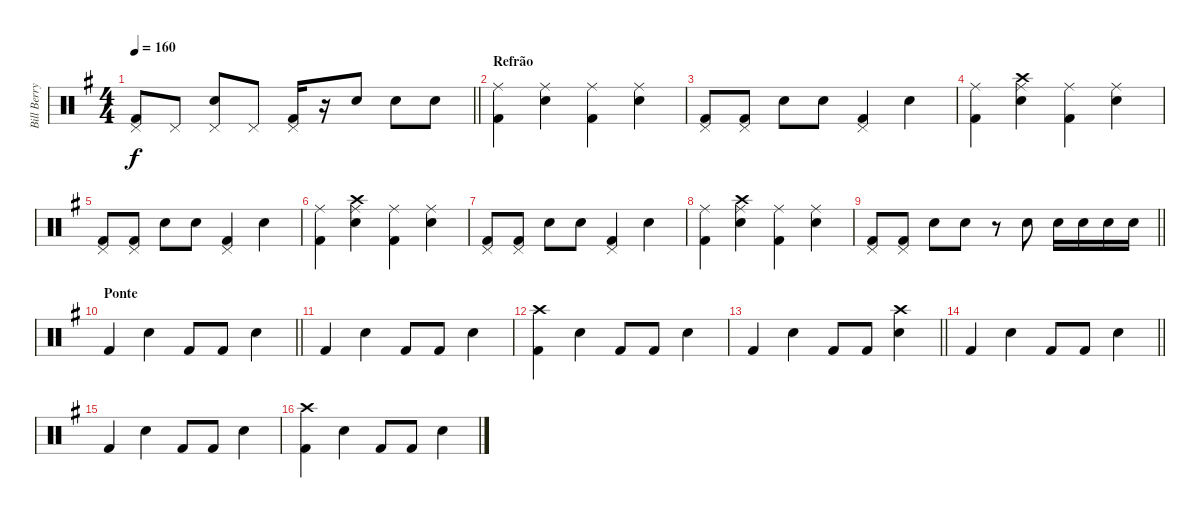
\track ("Bill Berry" "Bill Berry") {instrument percussion}
\staff {score}
\articulation defaults
\ts (4 4)
\tempo 160
\clef neutral
\barLineRight lightlight
\ks g
("Kick (hit) 2" "Pedal Hi-Hat (hit)").8{dy f} "Pedal Hi-Hat (hit)".8 ("Snare (hit) 2" "Pedal Hi-Hat (hit)").8 "Pedal Hi-Hat (hit)".8 ("Kick (hit) 2" "Pedal Hi-Hat (hit)").16 r.16 "Snare (hit) 2".8 "Snare (hit) 2".8 "Snare (hit) 2".8 |
\section ("" "Refrão")
("Kick (hit) 2" "Ride (middle)").4 ("Snare (hit) 2" "Ride (middle)").4 ("Kick (hit) 2" "Ride (middle)").4 ("Snare (hit) 2" "Ride (middle)").4 |
("Kick (hit) 2" "Pedal Hi-Hat (hit)").8 ("Kick (hit) 2" "Pedal Hi-Hat (hit)").8 "Snare (hit) 2".8 "Snare (hit) 2".8 ("Kick (hit) 2" "Pedal Hi-Hat (hit)").4 "Snare (hit) 2".4 |
("Kick (hit) 2" "Ride (middle)").4 ("Snare (hit) 2" "Ride (middle)" "Crash high (hit)").4 ("Kick (hit) 2" "Ride (middle)").4 ("Snare (hit) 2" "Ride (middle)").4 |
("Kick (hit) 2" "Pedal Hi-Hat (hit)").8 ("Kick (hit) 2" "Pedal Hi-Hat (hit)").8 "Snare (hit) 2".8 "Snare (hit) 2".8 ("Kick (hit) 2" "Pedal Hi-Hat (hit)").4 "Snare (hit) 2".4 |
("Kick (hit) 2" "Ride (middle)").4 ("Snare (hit) 2" "Ride (middle)" "Crash high (hit)").4 ("Kick (hit) 2" "Ride (middle)").4 ("Snare (hit) 2" "Ride (middle)").4 |
("Kick (hit) 2" "Pedal Hi-Hat (hit)").8 ("Kick (hit) 2" "Pedal Hi-Hat (hit)").8 "Snare (hit) 2".8 "Snare (hit) 2".8 ("Kick (hit) 2" "Pedal Hi-Hat (hit)").4 "Snare (hit) 2".4 |
("Kick (hit) 2" "Ride (middle)").4 ("Snare (hit) 2" "Ride (middle)" "Crash high (hit)").4 ("Kick (hit) 2" "Ride (middle)").4 ("Snare (hit) 2" "Ride (middle)").4 |
\barLineRight lightlight
("Kick (hit) 2" "Pedal Hi-Hat (hit)").8 ("Kick (hit) 2" "Pedal Hi-Hat (hit)").8 "Snare (hit) 2".8 "Snare (hit) 2".8 r.8 "Snare (hit) 2".8 "Snare (hit) 2".16 "Snare (hit) 2".16 "Snare (hit) 2".16 "Snare (hit) 2".16 |
\section ("" "Ponte")
\barLineRight lightlight "Kick (hit) 2".4 "Snare (hit) 2".4 "Kick (hit) 2".8 "Kick (hit) 2".8 "Snare (hit) 2".4
|
\section ("" "")
"Kick (hit) 2".4 "Snare (hit) 2".4 "Kick (hit) 2".8 "Kick (hit) 2".8 "Snare (hit) 2".4 |
("Kick (hit) 2" "Crash high (hit)").4 "Snare (hit) 2".4 "Kick (hit) 2".8 "Kick (hit) 2".8 "Snare (hit) 2".4 |
\barLineRight lightlight "Kick (hit) 2".4 "Snare (hit) 2".4 "Kick (hit) 2".8 "Kick (hit) 2".8
("Snare (hit) 2" "Crash high (hit)").4 |
\barLineRight lightlight "Kick (hit) 2".4 "Snare (hit) 2".4 "Kick (hit) 2".8 "Kick (hit) 2".8 "Snare (hit) 2".4
|
"Kick (hit) 2".4 "Snare (hit) 2".4 "Kick (hit) 2".8 "Kick (hit) 2".8 "Snare (hit) 2".4 |
("Kick (hit) 2" "Crash high (hit)").4 "Snare (hit) 2".4 "Kick (hit) 2".8 "Kick (hit) 2".8 "Snare (hit) 2".4
